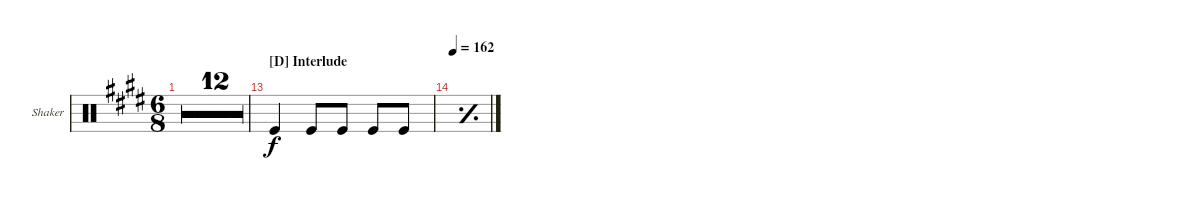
\defaultSystemsLayout 4
\bracketExtendMode groupsimilarinstruments
\firstSystemTrackNameOrientation horizontal
\otherSystemsTrackNameOrientation horizontal
\track ("Shaker" "Shaker") {multiBarRest instrument percussion}
\staff {score}
\articulation defaults
\ts (6 8)
\tempo 162
\clef neutral
\ks e
r.2{d dy f} |
r.2{d} |
r.2{d} |
\ts (3 4)
r.2{d} |
\ts (6 8)
r.2{d} |
r.2{d} |
r.2{d} |
\ts (3 4)
r.2{d} |
\ts (6 8)
r.2{d} |
r.2{d} |
r.2{d} |
\ts (3 4)
r.2{d} |
\section ("D" "Interlude")
"Kick (hit)".4 "Kick (hit)".8 "Kick (hit)".8 "Kick (hit)".8 "Kick (hit)".8 |
\tempo 162
\simile simple
